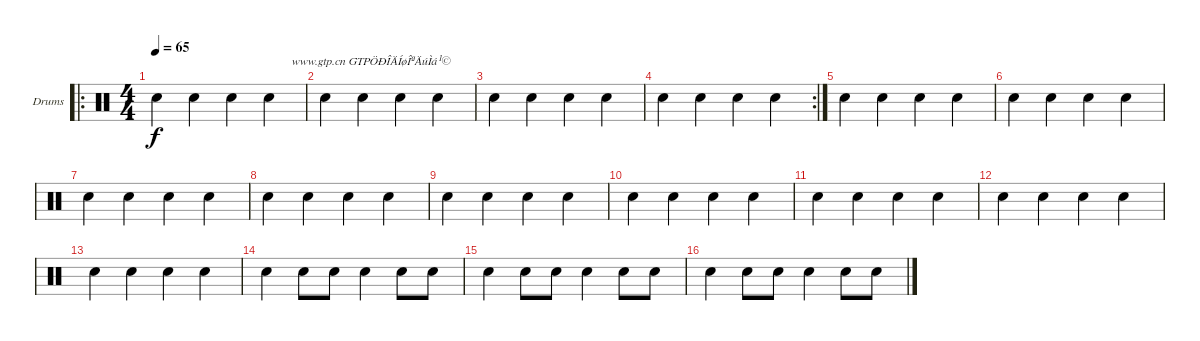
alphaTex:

\bracketExtendMode groupsimilarinstruments
\firstSystemTrackNameOrientation horizontal
\otherSystemsTrackNameOrientation horizontal
\track ("Drumkit" "Drums") {instrument percussion}
\staff {score}
\articulation defaults
\ro
\ts (4 4)
\tempo 65
\clef neutral
\ks c "Snare (hit) 2".4{dy f} "Snare (hit) 2".4 "Snare (hit) 2".4{txt "                    www.gtp.cn GTPÖÐÎÄÍøÎªÄúÌá¹©"} "Snare (hit) 2".4
|
"Snare (hit) 2".4 "Snare (hit) 2".4 "Snare (hit) 2".4 "Snare (hit) 2".4 |
"Snare (hit) 2".4 "Snare (hit) 2".4 "Snare (hit) 2".4 "Snare (hit) 2".4 |
\rc 2 "Snare (hit) 2".4 "Snare (hit) 2".4 "Snare (hit) 2".4 "Snare (hit) 2".4
|
"Snare (hit) 2".4 "Snare (hit) 2".4 "Snare (hit) 2".4 "Snare (hit) 2".4 |
"Snare (hit) 2".4 "Snare (hit) 2".4 "Snare (hit) 2".4 "Snare (hit) 2".4 |
"Snare (hit) 2".4 "Snare (hit) 2".4 "Snare (hit) 2".4 "Snare (hit) 2".4 |
"Snare (hit) 2".4 "Snare (hit) 2".4 "Snare (hit) 2".4 "Snare (hit) 2".4 |
"Snare (hit) 2".4 "Snare (hit) 2".4 "Snare (hit) 2".4 "Snare (hit) 2".4 |
"Snare (hit) 2".4 "Snare (hit) 2".4 "Snare (hit) 2".4 "Snare (hit) 2".4 |
"Snare (hit) 2".4 "Snare (hit) 2".4 "Snare (hit) 2".4 "Snare (hit) 2".4 |
"Snare (hit) 2".4 "Snare (hit) 2".4 "Snare (hit) 2".4 "Snare (hit) 2".4 |
"Snare (hit) 2".4 "Snare (hit) 2".4 "Snare (hit) 2".4 "Snare (hit) 2".4 |
"Snare (hit) 2".4 "Snare (hit) 2".8 "Snare (hit) 2".8 "Snare (hit) 2".4 "Snare (hit) 2".8 "Snare (hit) 2".8 |
"Snare (hit) 2".4 "Snare (hit) 2".8 "Snare (hit) 2".8 "Snare (hit) 2".4 "Snare (hit) 2".8 "Snare (hit) 2".8 |
"Snare (hit) 2".4 "Snare (hit) 2".8 "Snare (hit) 2".8 "Snare (hit) 2".4 "Snare (hit) 2".8 "Snare (hit) 2".8
